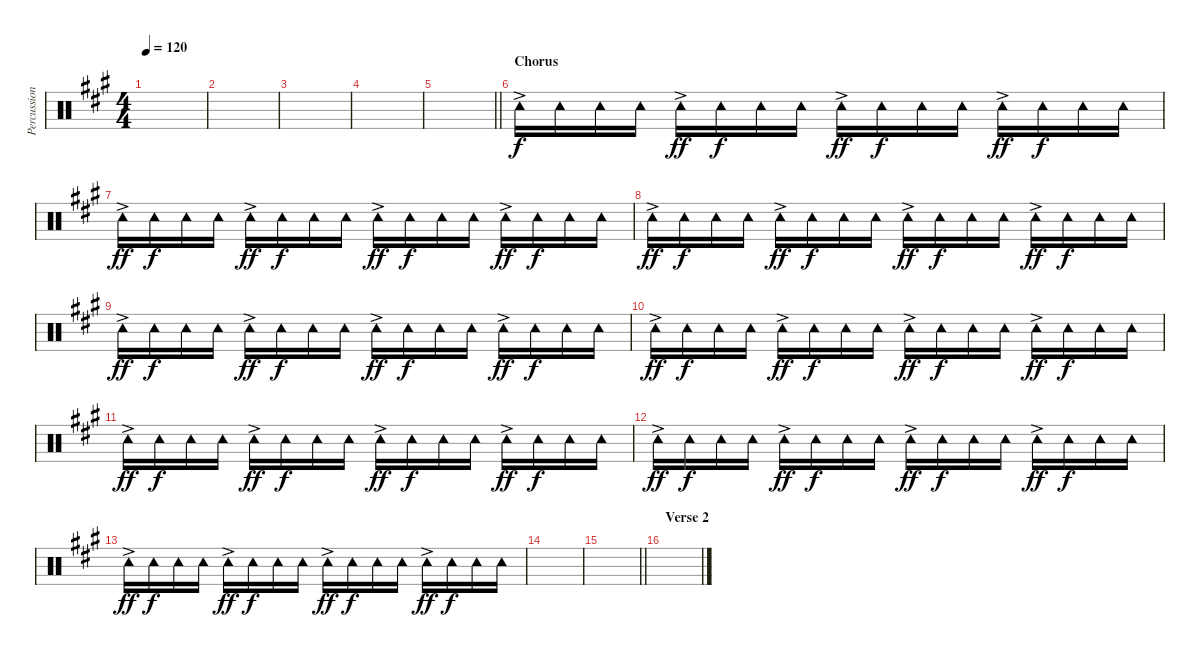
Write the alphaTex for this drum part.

\track ("Percussion" "Percussion") {instrument percussion}
\staff {score}
\articulation defaults
\ts (4 4)
\tempo 120
\clef neutral
\ks a
|
|
|
|
\barLineRight lightlight
|
\section ("" "Chorus")
"Tambourine (hit)"{ac}.16 "Tambourine (hit)".16{dy f} "Tambourine (hit)".16 "Tambourine (hit)".16 "Tambourine (hit)"{ac}.16{dy ff} "Tambourine (hit)".16{dy f} "Tambourine (hit)".16 "Tambourine (hit)".16 "Tambourine (hit)"{ac}.16{dy ff} "Tambourine (hit)".16{dy f} "Tambourine (hit)".16 "Tambourine (hit)".16 "Tambourine (hit)"{ac}.16{dy ff} "Tambourine (hit)".16{dy f} "Tambourine (hit)".16 "Tambourine (hit)".16 |
"Tambourine (hit)"{ac}.16{dy ff} "Tambourine (hit)".16{dy f} "Tambourine (hit)".16 "Tambourine (hit)".16 "Tambourine (hit)"{ac}.16{dy ff} "Tambourine (hit)".16{dy f} "Tambourine (hit)".16 "Tambourine (hit)".16 "Tambourine (hit)"{ac}.16{dy ff} "Tambourine (hit)".16{dy f} "Tambourine (hit)".16 "Tambourine (hit)".16 "Tambourine (hit)"{ac}.16{dy ff} "Tambourine (hit)".16{dy f} "Tambourine (hit)".16 "Tambourine (hit)".16 |
"Tambourine (hit)"{ac}.16{dy ff} "Tambourine (hit)".16{dy f} "Tambourine (hit)".16 "Tambourine (hit)".16 "Tambourine (hit)"{ac}.16{dy ff} "Tambourine (hit)".16{dy f} "Tambourine (hit)".16 "Tambourine (hit)".16 "Tambourine (hit)"{ac}.16{dy ff} "Tambourine (hit)".16{dy f} "Tambourine (hit)".16 "Tambourine (hit)".16 "Tambourine (hit)"{ac}.16{dy ff} "Tambourine (hit)".16{dy f} "Tambourine (hit)".16 "Tambourine (hit)".16 |
"Tambourine (hit)"{ac}.16{dy ff} "Tambourine (hit)".16{dy f} "Tambourine (hit)".16 "Tambourine (hit)".16 "Tambourine (hit)"{ac}.16{dy ff} "Tambourine (hit)".16{dy f} "Tambourine (hit)".16 "Tambourine (hit)".16 "Tambourine (hit)"{ac}.16{dy ff} "Tambourine (hit)".16{dy f} "Tambourine (hit)".16 "Tambourine (hit)".16 "Tambourine (hit)"{ac}.16{dy ff} "Tambourine (hit)".16{dy f} "Tambourine (hit)".16 "Tambourine (hit)".16 |
"Tambourine (hit)"{ac}.16{dy ff} "Tambourine (hit)".16{dy f} "Tambourine (hit)".16 "Tambourine (hit)".16 "Tambourine (hit)"{ac}.16{dy ff} "Tambourine (hit)".16{dy f} "Tambourine (hit)".16 "Tambourine (hit)".16 "Tambourine (hit)"{ac}.16{dy ff} "Tambourine (hit)".16{dy f} "Tambourine (hit)".16 "Tambourine (hit)".16 "Tambourine (hit)"{ac}.16{dy ff} "Tambourine (hit)".16{dy f} "Tambourine (hit)".16 "Tambourine (hit)".16 |
"Tambourine (hit)"{ac}.16{dy ff} "Tambourine (hit)".16{dy f} "Tambourine (hit)".16 "Tambourine (hit)".16 "Tambourine (hit)"{ac}.16{dy ff} "Tambourine (hit)".16{dy f} "Tambourine (hit)".16 "Tambourine (hit)".16 "Tambourine (hit)"{ac}.16{dy ff} "Tambourine (hit)".16{dy f} "Tambourine (hit)".16 "Tambourine (hit)".16 "Tambourine (hit)"{ac}.16{dy ff} "Tambourine (hit)".16{dy f} "Tambourine (hit)".16 "Tambourine (hit)".16 |
"Tambourine (hit)"{ac}.16{dy ff} "Tambourine (hit)".16{dy f} "Tambourine (hit)".16 "Tambourine (hit)".16 "Tambourine (hit)"{ac}.16{dy ff} "Tambourine (hit)".16{dy f} "Tambourine (hit)".16 "Tambourine (hit)".16 "Tambourine (hit)"{ac}.16{dy ff} "Tambourine (hit)".16{dy f} "Tambourine (hit)".16 "Tambourine (hit)".16 "Tambourine (hit)"{ac}.16{dy ff} "Tambourine (hit)".16{dy f} "Tambourine (hit)".16 "Tambourine (hit)".16 |
"Tambourine (hit)"{ac}.16{dy ff} "Tambourine (hit)".16{dy f} "Tambourine (hit)".16 "Tambourine (hit)".16 "Tambourine (hit)"{ac}.16{dy ff} "Tambourine (hit)".16{dy f} "Tambourine (hit)".16 "Tambourine (hit)".16 "Tambourine (hit)"{ac}.16{dy ff} "Tambourine (hit)".16{dy f} "Tambourine (hit)".16 "Tambourine (hit)".16 "Tambourine (hit)"{ac}.16{dy ff} "Tambourine (hit)".16{dy f} "Tambourine (hit)".16 "Tambourine (hit)".16 |
|
\barLineRight lightlight
|
\section ("" "Verse 2")
